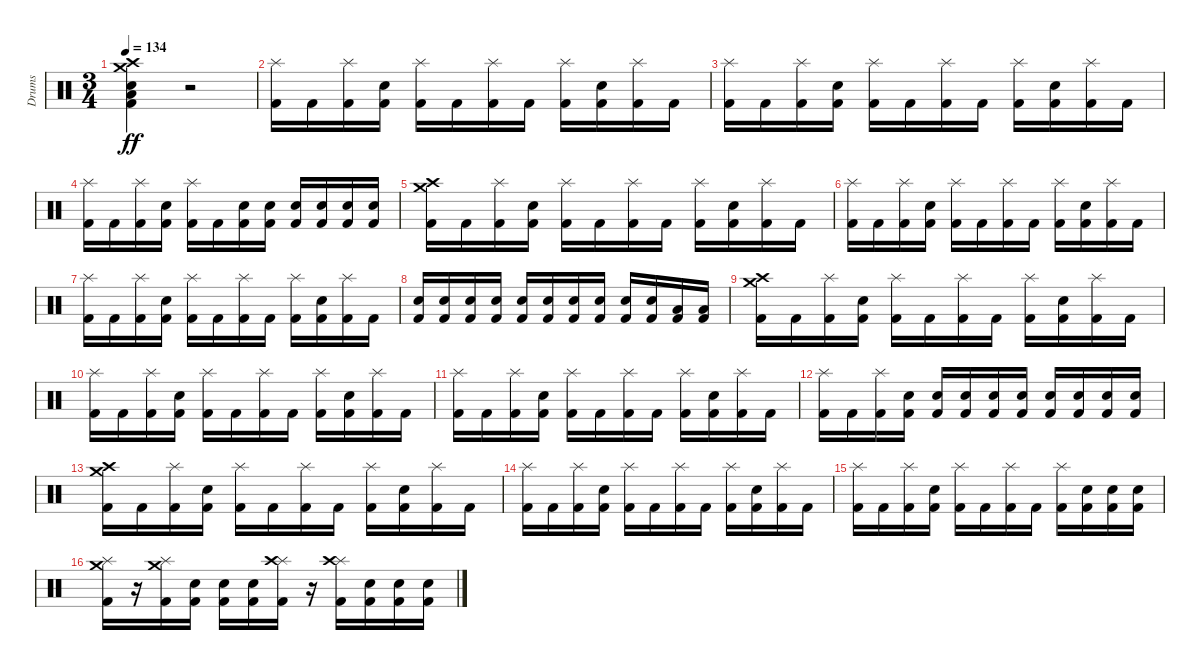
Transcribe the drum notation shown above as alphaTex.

\track ("Drums" "Drums") {instrument percussion}
\staff {score}
\articulation defaults
\ts (3 4)
\tempo 134
\clef neutral
\ks c
("Crash medium (hit)" "Crash high (hit)" "Low Floor Tom (hit)" "Snare (hit) 2" "Kick (hit) 2").4{dy ff} r.2 |
("Splash (hit)" "Kick (hit) 2").16 "Kick (hit) 2".16 ("Splash (hit)" "Kick (hit) 2").16 ("Snare (hit) 2" "Kick (hit) 2").16 ("Splash (hit)" "Kick (hit) 2").16 "Kick (hit) 2".16 ("Splash (hit)" "Kick (hit) 2").16 "Kick (hit) 2".16 ("Splash (hit)" "Kick (hit) 2").16 ("Snare (hit) 2" "Kick (hit) 2").16 ("Splash (hit)" "Kick (hit) 2").16 "Kick (hit) 2".16 |
("Splash (hit)" "Kick (hit) 2").16 "Kick (hit) 2".16 ("Splash (hit)" "Kick (hit) 2").16 ("Snare (hit) 2" "Kick (hit) 2").16 ("Splash (hit)" "Kick (hit) 2").16 "Kick (hit) 2".16 ("Splash (hit)" "Kick (hit) 2").16 "Kick (hit) 2".16 ("Splash (hit)" "Kick (hit) 2").16 ("Snare (hit) 2" "Kick (hit) 2").16 ("Splash (hit)" "Kick (hit) 2").16 "Kick (hit) 2".16 |
("Splash (hit)" "Kick (hit) 2").16 "Kick (hit) 2".16 ("Splash (hit)" "Kick (hit) 2").16 ("Snare (hit) 2" "Kick (hit) 2").16 ("Splash (hit)" "Kick (hit) 2").16 "Kick (hit) 2".16 ("Snare (hit) 2" "Kick (hit) 2").16 ("Snare (hit) 2" "Kick (hit) 2").16 ("Snare (hit) 2" "Kick (hit) 2").16 ("Snare (hit) 2" "Kick (hit) 2").16 ("Snare (hit) 2" "Kick (hit) 2").16 ("Snare (hit) 2" "Kick (hit) 2").16 |
("Crash medium (hit)" "Crash high (hit)" "Kick (hit) 2").16 "Kick (hit) 2".16 ("Splash (hit)" "Kick (hit) 2").16 ("Snare (hit) 2" "Kick (hit) 2").16 ("Splash (hit)" "Kick (hit) 2").16 "Kick (hit) 2".16 ("Splash (hit)" "Kick (hit) 2").16 "Kick (hit) 2".16 ("Splash (hit)" "Kick (hit) 2").16 ("Snare (hit) 2" "Kick (hit) 2").16 ("Splash (hit)" "Kick (hit) 2").16 "Kick (hit) 2".16 |
("Splash (hit)" "Kick (hit) 2").16 "Kick (hit) 2".16 ("Splash (hit)" "Kick (hit) 2").16 ("Snare (hit) 2" "Kick (hit) 2").16 ("Splash (hit)" "Kick (hit) 2").16 "Kick (hit) 2".16 ("Splash (hit)" "Kick (hit) 2").16 "Kick (hit) 2".16 ("Splash (hit)" "Kick (hit) 2").16 ("Snare (hit) 2" "Kick (hit) 2").16 ("Splash (hit)" "Kick (hit) 2").16 "Kick (hit) 2".16 |
("Splash (hit)" "Kick (hit) 2").16 "Kick (hit) 2".16 ("Splash (hit)" "Kick (hit) 2").16 ("Snare (hit) 2" "Kick (hit) 2").16 ("Splash (hit)" "Kick (hit) 2").16 "Kick (hit) 2".16 ("Splash (hit)" "Kick (hit) 2").16 "Kick (hit) 2".16 ("Splash (hit)" "Kick (hit) 2").16 ("Snare (hit) 2" "Kick (hit) 2").16 ("Splash (hit)" "Kick (hit) 2").16 "Kick (hit) 2".16 |
("Snare (hit) 2" "Kick (hit) 2").16 ("Snare (hit) 2" "Kick (hit) 2").16 ("Snare (hit) 2" "Kick (hit) 2").16 ("Snare (hit) 2" "Kick (hit) 2").16 ("Snare (hit) 2" "Kick (hit) 2").16 ("Snare (hit) 2" "Kick (hit) 2").16 ("Snare (hit) 2" "Kick (hit) 2").16 ("Snare (hit) 2" "Kick (hit) 2").16 ("Snare (hit) 2" "Kick (hit) 2").16 ("Snare (hit) 2" "Kick (hit) 2").16 ("Low Tom (hit)" "Kick (hit) 2").16 ("Low Tom (hit)" "Kick (hit) 2").16 |
("Crash medium (hit)" "Crash high (hit)" "Kick (hit) 2").16 "Kick (hit) 2".16 ("Splash (hit)" "Kick (hit) 2").16 ("Snare (hit) 2" "Kick (hit) 2").16 ("Splash (hit)" "Kick (hit) 2").16 "Kick (hit) 2".16 ("Splash (hit)" "Kick (hit) 2").16 "Kick (hit) 2".16 ("Splash (hit)" "Kick (hit) 2").16 ("Snare (hit) 2" "Kick (hit) 2").16 ("Splash (hit)" "Kick (hit) 2").16 "Kick (hit) 2".16 |
("Splash (hit)" "Kick (hit) 2").16 "Kick (hit) 2".16 ("Splash (hit)" "Kick (hit) 2").16 ("Snare (hit) 2" "Kick (hit) 2").16 ("Splash (hit)" "Kick (hit) 2").16 "Kick (hit) 2".16 ("Splash (hit)" "Kick (hit) 2").16 "Kick (hit) 2".16 ("Splash (hit)" "Kick (hit) 2").16 ("Snare (hit) 2" "Kick (hit) 2").16 ("Splash (hit)" "Kick (hit) 2").16 "Kick (hit) 2".16 |
("Splash (hit)" "Kick (hit) 2").16 "Kick (hit) 2".16 ("Splash (hit)" "Kick (hit) 2").16 ("Snare (hit) 2" "Kick (hit) 2").16 ("Splash (hit)" "Kick (hit) 2").16 "Kick (hit) 2".16 ("Splash (hit)" "Kick (hit) 2").16 "Kick (hit) 2".16 ("Splash (hit)" "Kick (hit) 2").16 ("Snare (hit) 2" "Kick (hit) 2").16 ("Splash (hit)" "Kick (hit) 2").16 "Kick (hit) 2".16 |
("Splash (hit)" "Kick (hit) 2").16 "Kick (hit) 2".16 ("Splash (hit)" "Kick (hit) 2").16 ("Snare (hit) 2" "Kick (hit) 2").16 ("Snare (hit) 2" "Kick (hit) 2").16 ("Snare (hit) 2" "Kick (hit) 2").16 ("Snare (hit) 2" "Kick (hit) 2").16 ("Snare (hit) 2" "Kick (hit) 2").16 ("Snare (hit) 2" "Kick (hit) 2").16 ("Snare (hit) 2" "Kick (hit) 2").16 ("Snare (hit) 2" "Kick (hit) 2").16 ("Snare (hit) 2" "Kick (hit) 2").16 |
("Crash medium (hit)" "Crash high (hit)" "Kick (hit) 2").16 "Kick (hit) 2".16 ("Splash (hit)" "Kick (hit) 2").16 ("Snare (hit) 2" "Kick (hit) 2").16 ("Splash (hit)" "Kick (hit) 2").16 "Kick (hit) 2".16 ("Splash (hit)" "Kick (hit) 2").16 "Kick (hit) 2".16 ("Splash (hit)" "Kick (hit) 2").16 ("Snare (hit) 2" "Kick (hit) 2").16 ("Splash (hit)" "Kick (hit) 2").16 "Kick (hit) 2".16 |
("Splash (hit)" "Kick (hit) 2").16 "Kick (hit) 2".16 ("Splash (hit)" "Kick (hit) 2").16 ("Snare (hit) 2" "Kick (hit) 2").16 ("Splash (hit)" "Kick (hit) 2").16 "Kick (hit) 2".16 ("Splash (hit)" "Kick (hit) 2").16 "Kick (hit) 2".16 ("Splash (hit)" "Kick (hit) 2").16 ("Snare (hit) 2" "Kick (hit) 2").16 ("Splash (hit)" "Kick (hit) 2").16 "Kick (hit) 2".16 |
("Splash (hit)" "Kick (hit) 2").16 "Kick (hit) 2".16 ("Splash (hit)" "Kick (hit) 2").16 ("Snare (hit) 2" "Kick (hit) 2").16 ("Splash (hit)" "Kick (hit) 2").16 "Kick (hit) 2".16 ("Splash (hit)" "Kick (hit) 2").16 "Kick (hit) 2".16 ("Splash (hit)" "Kick (hit) 2").16 ("Snare (hit) 2" "Kick (hit) 2").16 ("Snare (hit) 2" "Kick (hit) 2").16 ("Snare (hit) 2" "Kick (hit) 2").16 |
("Splash (hit)" "Crash medium (hit)" "Kick (hit) 2").16 r.16 ("Splash (hit)" "Crash medium (hit)" "Kick (hit) 2").16 ("Snare (hit) 2" "Kick (hit) 2").16 ("Snare (hit) 2" "Kick (hit) 2").16 ("Snare (hit) 2" "Kick (hit) 2").16 ("Splash (hit)" "Crash high (hit)" "Kick (hit) 2").16 r.16 ("Splash (hit)" "Crash high (hit)" "Kick (hit) 2").16 ("Snare (hit) 2" "Kick (hit) 2").16 ("Snare (hit) 2" "Kick (hit) 2").16 ("Snare (hit) 2" "Kick (hit) 2").16
